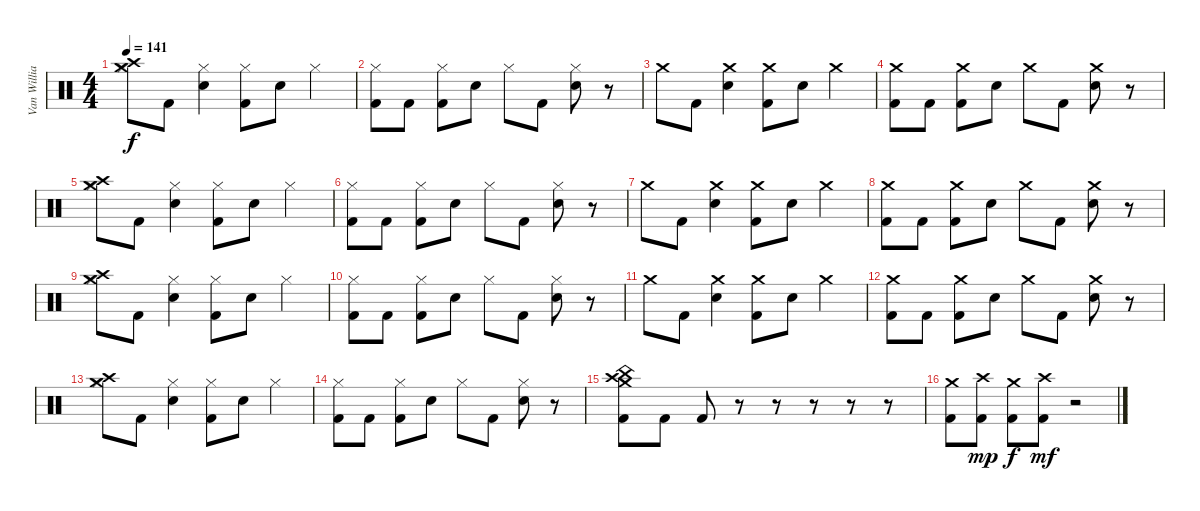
\track ("Van Williams" "Van Willia") {instrument percussion}
\staff {score}
\articulation defaults
\ts (4 4)
\tempo 141
\clef neutral
\ks c
("Hi-Hat (closed)" "Crash medium (hit)" "Crash high (hit)").8{dy f} "Kick (hit) 2".8 ("Hi-Hat (closed)" "Electric Snare (hit)").4 ("Hi-Hat (closed)" "Kick (hit) 2").8 "Electric Snare (hit)".8 "Hi-Hat (closed)".4 |
("Hi-Hat (closed)" "Kick (hit) 2").8 "Kick (hit) 2".8 ("Hi-Hat (closed)" "Kick (hit) 2").8 "Electric Snare (hit)".8 "Hi-Hat (closed)".8 "Kick (hit) 2".8 ("Hi-Hat (closed)" "Electric Snare (hit)").8 r.8 |
"Crash medium (hit)".8 "Kick (hit) 2".8 ("Crash medium (hit)" "Electric Snare (hit)").4 ("Crash medium (hit)" "Kick (hit) 2").8 "Electric Snare (hit)".8 "Crash medium (hit)".4 |
("Crash medium (hit)" "Kick (hit) 2").8 "Kick (hit) 2".8 ("Crash medium (hit)" "Kick (hit) 2").8 "Electric Snare (hit)".8 "Crash medium (hit)".8 "Kick (hit) 2".8 ("Crash medium (hit)" "Electric Snare (hit)").8 r.8 |
("Hi-Hat (closed)" "Crash medium (hit)" "Crash high (hit)").8 "Kick (hit) 2".8 ("Hi-Hat (closed)" "Electric Snare (hit)").4 ("Hi-Hat (closed)" "Kick (hit) 2").8 "Electric Snare (hit)".8 "Hi-Hat (closed)".4 |
("Hi-Hat (closed)" "Kick (hit) 2").8 "Kick (hit) 2".8 ("Hi-Hat (closed)" "Kick (hit) 2").8 "Electric Snare (hit)".8 "Hi-Hat (closed)".8 "Kick (hit) 2".8 ("Hi-Hat (closed)" "Electric Snare (hit)").8 r.8 |
"Crash medium (hit)".8 "Kick (hit) 2".8 ("Crash medium (hit)" "Electric Snare (hit)").4 ("Crash medium (hit)" "Kick (hit) 2").8 "Electric Snare (hit)".8 "Crash medium (hit)".4 |
("Crash medium (hit)" "Kick (hit) 2").8 "Kick (hit) 2".8 ("Crash medium (hit)" "Kick (hit) 2").8 "Electric Snare (hit)".8 "Crash medium (hit)".8 "Kick (hit) 2".8 ("Crash medium (hit)" "Electric Snare (hit)").8 r.8 |
("Hi-Hat (closed)" "Crash medium (hit)" "Crash high (hit)").8 "Kick (hit) 2".8 ("Hi-Hat (closed)" "Electric Snare (hit)").4 ("Hi-Hat (closed)" "Kick (hit) 2").8 "Electric Snare (hit)".8 "Hi-Hat (closed)".4 |
("Hi-Hat (closed)" "Kick (hit) 2").8 "Kick (hit) 2".8 ("Hi-Hat (closed)" "Kick (hit) 2").8 "Electric Snare (hit)".8 "Hi-Hat (closed)".8 "Kick (hit) 2".8 ("Hi-Hat (closed)" "Electric Snare (hit)").8 r.8 |
"Crash medium (hit)".8 "Kick (hit) 2".8 ("Crash medium (hit)" "Electric Snare (hit)").4 ("Crash medium (hit)" "Kick (hit) 2").8 "Electric Snare (hit)".8 "Crash medium (hit)".4 |
("Crash medium (hit)" "Kick (hit) 2").8 "Kick (hit) 2".8 ("Crash medium (hit)" "Kick (hit) 2").8 "Electric Snare (hit)".8 "Crash medium (hit)".8 "Kick (hit) 2".8 ("Crash medium (hit)" "Electric Snare (hit)").8 r.8 |
("Hi-Hat (closed)" "Crash medium (hit)" "Crash high (hit)").8 "Kick (hit) 2".8 ("Hi-Hat (closed)" "Electric Snare (hit)").4 ("Hi-Hat (closed)" "Kick (hit) 2").8 "Electric Snare (hit)".8 "Hi-Hat (closed)".4 |
("Hi-Hat (closed)" "Kick (hit) 2").8 "Kick (hit) 2".8 ("Hi-Hat (closed)" "Kick (hit) 2").8 "Electric Snare (hit)".8 "Hi-Hat (closed)".8 "Kick (hit) 2".8 ("Hi-Hat (closed)" "Electric Snare (hit)").8 r.8 |
("Crash high (hit)" "Crash medium (hit)" "China (hit)" "Kick (hit) 2").8 "Kick (hit) 2".8 "Kick (hit) 2".8 r.8 r.8 r.8 r.8 r.8 |
("Crash medium (hit)" "Kick (hit) 2").8 ("Crash high (hit)" "Kick (hit) 2").8{dy mp} ("Crash medium (hit)" "Kick (hit) 2").8{dy f} ("Crash high (hit)" "Kick (hit) 2").8{dy mf} r.2
